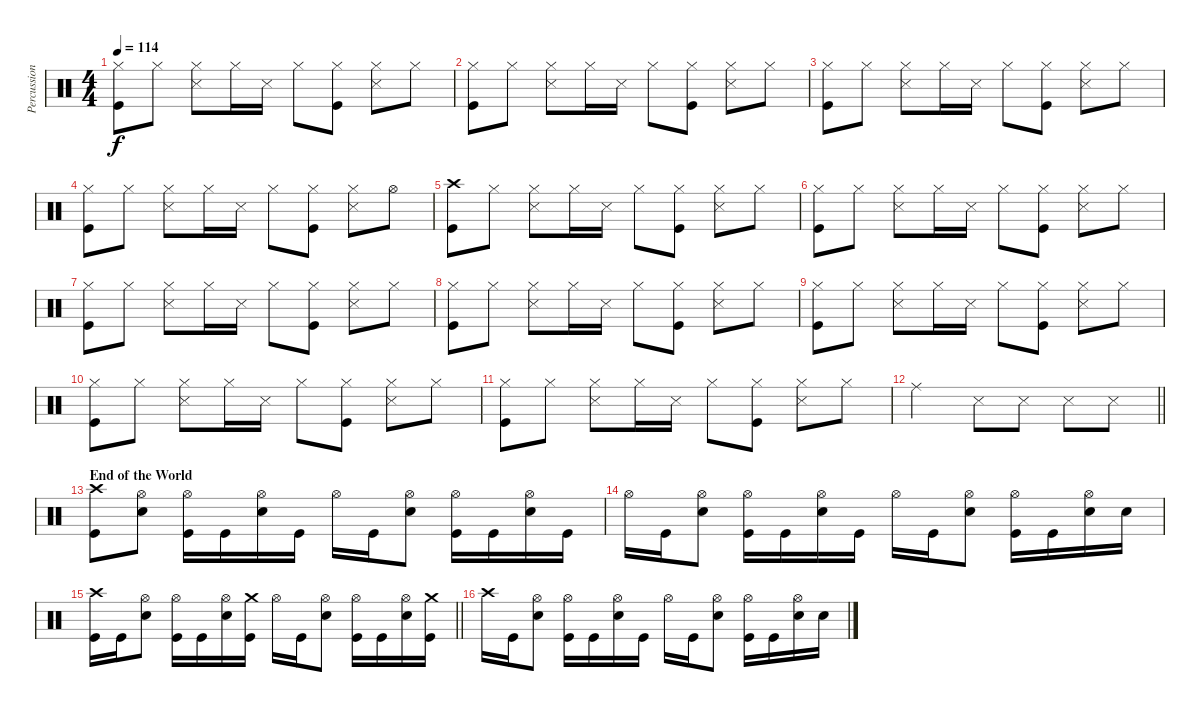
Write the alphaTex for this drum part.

\track ("Percussion" "Percussion") {instrument percussion}
\staff {score}
\articulation defaults
\ts (4 4)
\tempo 114
\clef neutral
\ks c
("Hi-Hat (closed)" "Kick (hit)").8{dy f} "Hi-Hat (closed)".8 ("Hi-Hat (closed)" "Snare (side stick) 3").8 "Hi-Hat (closed)".16 "Snare (side stick) 3".16 "Hi-Hat (closed)".8 ("Hi-Hat (closed)" "Kick (hit)").8 ("Hi-Hat (closed)" "Snare (side stick) 3").8 "Hi-Hat (closed)".8 |
("Hi-Hat (closed)" "Kick (hit)").8 "Hi-Hat (closed)".8 ("Hi-Hat (closed)" "Snare (side stick) 3").8 "Hi-Hat (closed)".16 "Snare (side stick) 3".16 "Hi-Hat (closed)".8 ("Hi-Hat (closed)" "Kick (hit)").8 ("Hi-Hat (closed)" "Snare (side stick) 3").8 "Hi-Hat (closed)".8 |
("Hi-Hat (closed)" "Kick (hit)").8 "Hi-Hat (closed)".8 ("Hi-Hat (closed)" "Snare (side stick) 3").8 "Hi-Hat (closed)".16 "Snare (side stick) 3".16 "Hi-Hat (closed)".8 ("Hi-Hat (closed)" "Kick (hit)").8 ("Hi-Hat (closed)" "Snare (side stick) 3").8 "Hi-Hat (closed)".8 |
("Hi-Hat (closed)" "Kick (hit)").8 "Hi-Hat (closed)".8 ("Hi-Hat (closed)" "Snare (side stick) 3").8 "Hi-Hat (closed)".16 "Snare (side stick) 3".16 "Hi-Hat (closed)".8 ("Hi-Hat (closed)" "Kick (hit)").8 ("Hi-Hat (closed)" "Snare (side stick) 3").8 "Hi-Hat (open)".8 |
("Crash high (hit)" "Kick (hit)").8 "Hi-Hat (closed)".8 ("Hi-Hat (closed)" "Snare (side stick) 3").8 "Hi-Hat (closed)".16 "Snare (side stick) 3".16 "Hi-Hat (closed)".8 ("Hi-Hat (closed)" "Kick (hit)").8 ("Hi-Hat (closed)" "Snare (side stick) 3").8 "Hi-Hat (closed)".8 |
("Hi-Hat (closed)" "Kick (hit)").8 "Hi-Hat (closed)".8 ("Hi-Hat (closed)" "Snare (side stick) 3").8 "Hi-Hat (closed)".16 "Snare (side stick) 3".16 "Hi-Hat (closed)".8 ("Hi-Hat (closed)" "Kick (hit)").8 ("Hi-Hat (closed)" "Snare (side stick) 3").8 "Hi-Hat (closed)".8 |
("Hi-Hat (closed)" "Kick (hit)").8 "Hi-Hat (closed)".8 ("Hi-Hat (closed)" "Snare (side stick) 3").8 "Hi-Hat (closed)".16 "Snare (side stick) 3".16 "Hi-Hat (closed)".8 ("Hi-Hat (closed)" "Kick (hit)").8 ("Hi-Hat (closed)" "Snare (side stick) 3").8 "Hi-Hat (closed)".8 |
("Hi-Hat (closed)" "Kick (hit)").8 "Hi-Hat (closed)".8 ("Hi-Hat (closed)" "Snare (side stick) 3").8 "Hi-Hat (closed)".16 "Snare (side stick) 3".16 "Hi-Hat (closed)".8 ("Hi-Hat (closed)" "Kick (hit)").8 ("Hi-Hat (closed)" "Snare (side stick) 3").8 "Hi-Hat (closed)".8 |
("Hi-Hat (closed)" "Kick (hit)").8 "Hi-Hat (closed)".8 ("Hi-Hat (closed)" "Snare (side stick) 3").8 "Hi-Hat (closed)".16 "Snare (side stick) 3".16 "Hi-Hat (closed)".8 ("Hi-Hat (closed)" "Kick (hit)").8 ("Hi-Hat (closed)" "Snare (side stick) 3").8 "Hi-Hat (closed)".8 |
("Hi-Hat (closed)" "Kick (hit)").8 "Hi-Hat (closed)".8 ("Hi-Hat (closed)" "Snare (side stick) 3").8 "Hi-Hat (closed)".16 "Snare (side stick) 3".16 "Hi-Hat (closed)".8 ("Hi-Hat (closed)" "Kick (hit)").8 ("Hi-Hat (closed)" "Snare (side stick) 3").8 "Hi-Hat (closed)".8 |
("Hi-Hat (closed)" "Kick (hit)").8 "Hi-Hat (closed)".8 ("Hi-Hat (closed)" "Snare (side stick) 3").8 "Hi-Hat (closed)".16 "Snare (side stick) 3".16 "Hi-Hat (closed)".8 ("Hi-Hat (closed)" "Kick (hit)").8 ("Hi-Hat (closed)" "Snare (side stick) 3").8 "Hi-Hat (closed)".8 |
\barLineRight lightlight "Ride (middle)".2 "Snare (side stick) 3".8 "Snare (side stick) 3".8 "Snare (side stick) 3".8 "Snare (side stick) 3".8
|
\section ("" "End of the World")
("Crash high (hit)" "Kick (hit)").8 ("Hi-Hat (open)" "Electric Snare (hit)").8 ("Hi-Hat (open)" "Kick (hit)").16 "Kick (hit)".16 ("Hi-Hat (open)" "Electric Snare (hit)").16 "Kick (hit)".16 "Hi-Hat (open)".16 "Kick (hit)".16 ("Hi-Hat (open)" "Electric Snare (hit)").8 ("Hi-Hat (open)" "Kick (hit)").16 "Kick (hit)".16 ("Hi-Hat (open)" "Electric Snare (hit)").16 "Kick (hit)".16 |
"Hi-Hat (open)".16 "Kick (hit)".16 ("Hi-Hat (open)" "Electric Snare (hit)").8 ("Hi-Hat (open)" "Kick (hit)").16 "Kick (hit)".16 ("Hi-Hat (open)" "Electric Snare (hit)").16 "Kick (hit)".16 "Hi-Hat (open)".16 "Kick (hit)".16 ("Hi-Hat (open)" "Electric Snare (hit)").8 ("Hi-Hat (open)" "Kick (hit)").16 "Kick (hit)".16 ("Hi-Hat (open)" "Electric Snare (hit)").16 "Electric Snare (hit)".16 |
\barLineRight lightlight
("Crash high (hit)" "Kick (hit)").16 "Kick (hit)".16 ("Hi-Hat (open)" "Electric Snare (hit)").8 ("Hi-Hat (open)" "Kick (hit)").16 "Kick (hit)".16 ("Hi-Hat (open)" "Electric Snare (hit)").16 ("Crash medium (hit)" "Kick (hit)").16 "Hi-Hat (open)".16 "Kick (hit)".16 ("Hi-Hat (open)" "Electric Snare (hit)").8 ("Hi-Hat (open)" "Kick (hit)").16 "Kick (hit)".16 ("Hi-Hat (open)" "Electric Snare (hit)").16 ("Crash medium (hit)" "Kick (hit)").16 |
"Crash high (hit)".16 "Kick (hit)".16 ("Hi-Hat (open)" "Electric Snare (hit)").8 ("Hi-Hat (open)" "Kick (hit)").16 "Kick (hit)".16 ("Hi-Hat (open)" "Electric Snare (hit)").16 "Kick (hit)".16 "Hi-Hat (open)".16 "Kick (hit)".16 ("Hi-Hat (open)" "Electric Snare (hit)").8 ("Hi-Hat (open)" "Kick (hit)").16 "Kick (hit)".16 ("Hi-Hat (open)" "Electric Snare (hit)").16 "Electric Snare (hit)".16
